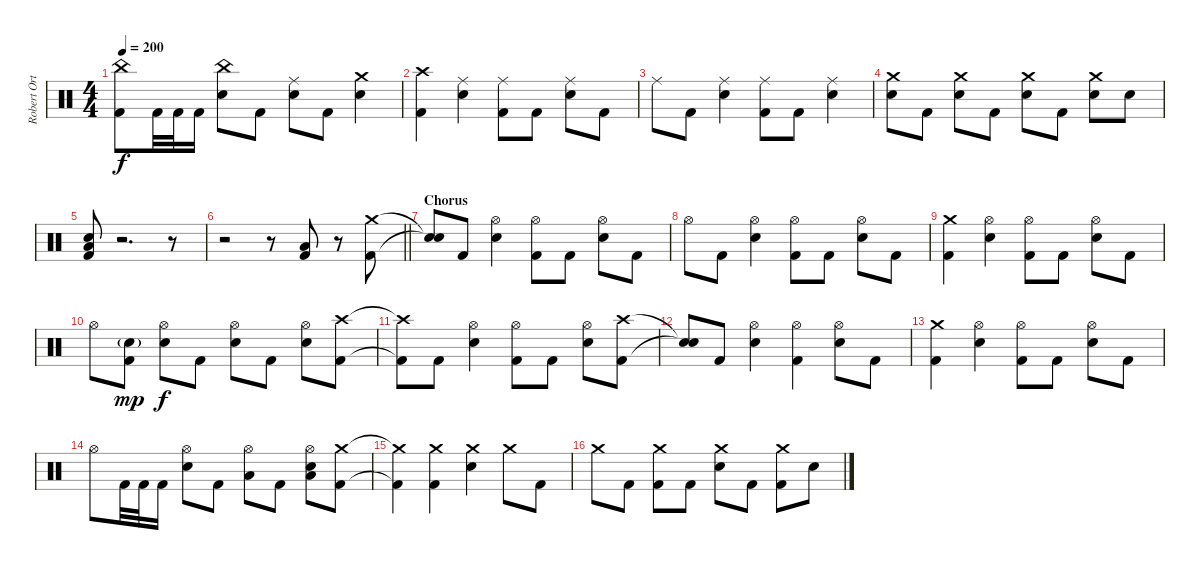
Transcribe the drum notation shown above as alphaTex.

\track ("Robert Ortiz - Drums" "Robert Ort") {instrument percussion}
\staff {score}
\articulation defaults
\ts (4 4)
\tempo 200
\clef neutral
\ks c
("China (hit)" "Kick (hit) 2").8{dy f} "Kick (hit) 2".32 "Kick (hit) 2".32 "Kick (hit) 2".16 ("China (hit)" "Electric Snare (hit)").8 "Kick (hit) 2".8 ("Ride (middle)" "Electric Snare (hit)").8 "Kick (hit) 2".8 ("Crash medium (hit)" "Electric Snare (hit)").4 |
("Crash high (hit)" "Kick (hit) 2").4 ("Ride (middle)" "Electric Snare (hit)").4 ("Ride (middle)" "Kick (hit) 2").8 "Kick (hit) 2".8 ("Ride (middle)" "Electric Snare (hit)").8 "Kick (hit) 2".8 |
"Ride (middle)".8 "Kick (hit) 2".8 ("Ride (middle)" "Electric Snare (hit)").4 ("Ride (middle)" "Kick (hit) 2").8 "Kick (hit) 2".8 ("Ride (middle)" "Electric Snare (hit)").4 |
("Crash medium (hit)" "Electric Snare (hit)").8 "Kick (hit) 2".8 ("Crash medium (hit)" "Electric Snare (hit)").8 "Kick (hit) 2".8 ("Crash medium (hit)" "Electric Snare (hit)").8 "Kick (hit) 2".8 ("Crash medium (hit)" "Electric Snare (hit)").8 "Electric Snare (hit)".8 |
("Electric Snare (hit)" "Low Floor Tom (hit)" "Kick (hit) 2").8 r.2{d} r.8 |
\barLineRight lightlight
r.2 r.8 ("Low Floor Tom (hit)" "Kick (hit) 2").8 r.8 ("Crash medium (hit)" "Kick (hit) 2").8 |
\section ("" "Chorus")
("Snare (hit)"{t} "Snare (hit)"{t}).8 "Kick (hit) 2".8 ("Hi-Hat (open)" "Electric Snare (hit)").4 ("Hi-Hat (open)" "Kick (hit) 2").8 "Kick (hit) 2".8 ("Hi-Hat (open)" "Electric Snare (hit)").8 "Kick (hit) 2".8 |
"Hi-Hat (open)".8 "Kick (hit) 2".8 ("Hi-Hat (open)" "Electric Snare (hit)").4 ("Hi-Hat (open)" "Kick (hit) 2").8 "Kick (hit) 2".8 ("Hi-Hat (open)" "Electric Snare (hit)").8 "Kick (hit) 2".8 |
("Crash medium (hit)" "Kick (hit) 2").4 ("Hi-Hat (open)" "Electric Snare (hit)").4 ("Hi-Hat (open)" "Kick (hit) 2").8 "Kick (hit) 2".8 ("Hi-Hat (open)" "Electric Snare (hit)").8 "Kick (hit) 2".8 |
"Hi-Hat (open)".8 ("Electric Snare (hit)"{g} "Kick (hit) 2").8{dy mp} ("Hi-Hat (open)" "Electric Snare (hit)").8{dy f} "Kick (hit) 2".8 ("Hi-Hat (open)" "Electric Snare (hit)").8 "Kick (hit) 2".8 ("Hi-Hat (open)" "Electric Snare (hit)").8 ("Crash high (hit)" "Kick (hit) 2").8 |
("Crash high (hit)"{t} "Kick (hit) 2"{t}).8 "Kick (hit) 2".8 ("Hi-Hat (open)" "Electric Snare (hit)").4 ("Hi-Hat (open)" "Kick (hit) 2").8 "Kick (hit) 2".8 ("Hi-Hat (open)" "Electric Snare (hit)").8 ("Crash high (hit)" "Kick (hit) 2").8 |
("Snare (hit)"{t} "Snare (hit)"{t}).8 "Kick (hit) 2".8 ("Hi-Hat (open)" "Electric Snare (hit)").4 ("Hi-Hat (open)" "Kick (hit) 2").4 ("Hi-Hat (open)" "Electric Snare (hit)").8 "Kick (hit) 2".8 |
("Crash medium (hit)" "Kick (hit) 2").4 ("Hi-Hat (open)" "Electric Snare (hit)").4 ("Hi-Hat (open)" "Kick (hit) 2").8 "Kick (hit) 2".8 ("Hi-Hat (open)" "Electric Snare (hit)").8 "Kick (hit) 2".8 |
"Hi-Hat (open)".8 "Kick (hit) 2".32 "Kick (hit) 2".32 "Kick (hit) 2".16 ("Hi-Hat (open)" "Electric Snare (hit)").8 "Kick (hit) 2".8 ("Hi-Hat (open)" "Low Tom (hit)").8 "Kick (hit) 2".8 ("Hi-Hat (open)" "Electric Snare (hit)" "Low Floor Tom (hit)").8 ("Crash medium (hit)" "Kick (hit) 2").8 |
("Crash medium (hit)"{t} "Kick (hit) 2"{t}).4 ("Crash medium (hit)" "Kick (hit) 2").4 ("Crash medium (hit)" "Electric Snare (hit)").4 "Crash medium (hit)".8 "Kick (hit) 2".8 |
"Crash medium (hit)".8 "Kick (hit) 2".8 ("Crash medium (hit)" "Kick (hit) 2").8 "Kick (hit) 2".8 ("Crash medium (hit)" "Electric Snare (hit)").8 "Kick (hit) 2".8 ("Crash medium (hit)" "Kick (hit) 2").8 "Electric Snare (hit)".8
